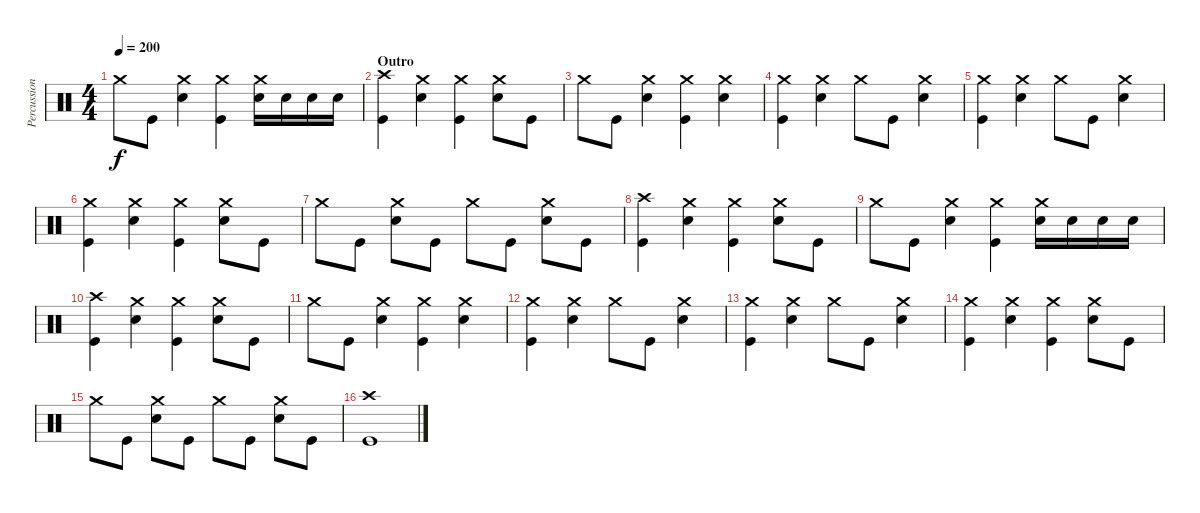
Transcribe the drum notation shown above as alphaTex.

\track ("Percussion" "Percussion") {instrument percussion}
\staff {score}
\articulation defaults
\ts (4 4)
\tempo 200
\clef neutral
\ks c "Crash medium (hit)".8{dy f} "Kick (hit)".8
("Crash medium (hit)" "Electric Snare (hit)").4 ("Crash medium (hit)" "Kick (hit)").4 ("Crash medium (hit)" "Electric Snare (hit)").16 "Electric Snare (hit)".16 "Electric Snare (hit)".16 "Electric Snare (hit)".16 |
\section ("" "Outro")
("Crash high (hit)" "Kick (hit)").4 ("Crash medium (hit)" "Electric Snare (hit)").4 ("Crash medium (hit)" "Kick (hit)").4 ("Crash medium (hit)" "Electric Snare (hit)").8 "Kick (hit)".8 |
"Crash medium (hit)".8 "Kick (hit)".8 ("Crash medium (hit)" "Electric Snare (hit)").4 ("Crash medium (hit)" "Kick (hit)").4 ("Crash medium (hit)" "Electric Snare (hit)").4 |
("Crash medium (hit)" "Kick (hit)").4 ("Crash medium (hit)" "Electric Snare (hit)").4 "Crash medium (hit)".8 "Kick (hit)".8 ("Crash medium (hit)" "Electric Snare (hit)").4 |
("Crash medium (hit)" "Kick (hit)").4 ("Crash medium (hit)" "Electric Snare (hit)").4 "Crash medium (hit)".8 "Kick (hit)".8 ("Crash medium (hit)" "Electric Snare (hit)").4 |
("Crash medium (hit)" "Kick (hit)").4 ("Crash medium (hit)" "Electric Snare (hit)").4 ("Crash medium (hit)" "Kick (hit)").4 ("Crash medium (hit)" "Electric Snare (hit)").8 "Kick (hit)".8 |
"Crash medium (hit)".8 "Kick (hit)".8 ("Crash medium (hit)" "Electric Snare (hit)").8 "Kick (hit)".8 "Crash medium (hit)".8 "Kick (hit)".8 ("Crash medium (hit)" "Electric Snare (hit)").8 "Kick (hit)".8 |
("Crash high (hit)" "Kick (hit)").4 ("Crash medium (hit)" "Electric Snare (hit)").4 ("Crash medium (hit)" "Kick (hit)").4 ("Crash medium (hit)" "Electric Snare (hit)").8 "Kick (hit)".8 |
"Crash medium (hit)".8 "Kick (hit)".8 ("Crash medium (hit)" "Electric Snare (hit)").4 ("Crash medium (hit)" "Kick (hit)").4 ("Crash medium (hit)" "Electric Snare (hit)").16 "Electric Snare (hit)".16 "Electric Snare (hit)".16 "Electric Snare (hit)".16 |
("Crash high (hit)" "Kick (hit)").4 ("Crash medium (hit)" "Electric Snare (hit)").4 ("Crash medium (hit)" "Kick (hit)").4 ("Crash medium (hit)" "Electric Snare (hit)").8 "Kick (hit)".8 |
"Crash medium (hit)".8 "Kick (hit)".8 ("Crash medium (hit)" "Electric Snare (hit)").4 ("Crash medium (hit)" "Kick (hit)").4 ("Crash medium (hit)" "Electric Snare (hit)").4 |
("Crash medium (hit)" "Kick (hit)").4 ("Crash medium (hit)" "Electric Snare (hit)").4 "Crash medium (hit)".8 "Kick (hit)".8 ("Crash medium (hit)" "Electric Snare (hit)").4 |
("Crash medium (hit)" "Kick (hit)").4 ("Crash medium (hit)" "Electric Snare (hit)").4 "Crash medium (hit)".8 "Kick (hit)".8 ("Crash medium (hit)" "Electric Snare (hit)").4 |
("Crash medium (hit)" "Kick (hit)").4 ("Crash medium (hit)" "Electric Snare (hit)").4 ("Crash medium (hit)" "Kick (hit)").4 ("Crash medium (hit)" "Electric Snare (hit)").8 "Kick (hit)".8 |
"Crash medium (hit)".8 "Kick (hit)".8 ("Crash medium (hit)" "Electric Snare (hit)").8 "Kick (hit)".8 "Crash medium (hit)".8 "Kick (hit)".8 ("Crash medium (hit)" "Electric Snare (hit)").8 "Kick (hit)".8 |
("Crash high (hit)" "Kick (hit)").1
